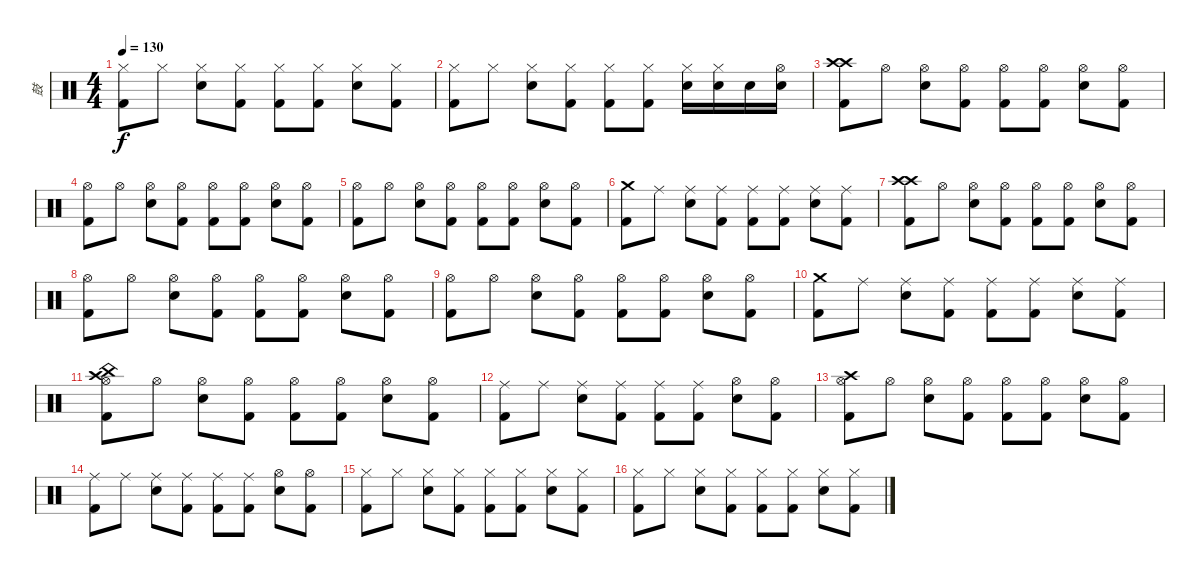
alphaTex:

\track ("鼓" "鼓") {instrument percussion}
\staff {score}
\articulation defaults
\ts (4 4)
\tempo 130
\clef neutral
\ks c
("Hi-Hat (closed)" "Kick (hit) 2").8{dy f} "Hi-Hat (closed)".8 ("Hi-Hat (closed)" "Electric Snare (hit)").8 ("Hi-Hat (closed)" "Kick (hit) 2").8 ("Hi-Hat (closed)" "Kick (hit) 2").8 ("Hi-Hat (closed)" "Kick (hit) 2").8 ("Hi-Hat (closed)" "Electric Snare (hit)").8 ("Hi-Hat (closed)" "Kick (hit) 2").8 |
("Hi-Hat (closed)" "Kick (hit) 2").8 "Hi-Hat (closed)".8 ("Hi-Hat (closed)" "Electric Snare (hit)").8 ("Hi-Hat (closed)" "Kick (hit) 2").8 ("Hi-Hat (closed)" "Kick (hit) 2").8 ("Hi-Hat (closed)" "Kick (hit) 2").8 ("Hi-Hat (closed)" "Electric Snare (hit)").16 ("Hi-Hat (closed)" "Electric Snare (hit)").16 "Electric Snare (hit)".16 ("Hi-Hat (open)" "Electric Snare (hit)").16 |
("Crash high (hit)" "Crash high (hit)" "Kick (hit) 2").8 "Hi-Hat (open)".8 ("Hi-Hat (open)" "Electric Snare (hit)").8 ("Hi-Hat (open)" "Kick (hit) 2").8 ("Hi-Hat (open)" "Kick (hit) 2").8 ("Hi-Hat (open)" "Kick (hit) 2").8 ("Hi-Hat (open)" "Electric Snare (hit)").8 ("Hi-Hat (open)" "Kick (hit) 2").8 |
("Hi-Hat (open)" "Kick (hit) 2").8 "Hi-Hat (open)".8 ("Hi-Hat (open)" "Electric Snare (hit)").8 ("Hi-Hat (open)" "Kick (hit) 2").8 ("Hi-Hat (open)" "Kick (hit) 2").8 ("Hi-Hat (open)" "Kick (hit) 2").8 ("Hi-Hat (open)" "Electric Snare (hit)").8 ("Hi-Hat (open)" "Kick (hit) 2").8 |
("Hi-Hat (open)" "Kick (hit) 2").8 "Hi-Hat (open)".8 ("Hi-Hat (open)" "Electric Snare (hit)").8 ("Hi-Hat (open)" "Kick (hit) 2").8 ("Hi-Hat (open)" "Kick (hit) 2").8 ("Hi-Hat (open)" "Kick (hit) 2").8 ("Hi-Hat (open)" "Electric Snare (hit)").8 ("Hi-Hat (open)" "Kick (hit) 2").8 |
("Crash medium (hit)" "Kick (hit) 2").8 "Ride (middle)".8 ("Ride (middle)" "Electric Snare (hit)").8 ("Ride (middle)" "Kick (hit) 2").8 ("Ride (middle)" "Kick (hit) 2").8 ("Ride (middle)" "Kick (hit) 2").8 ("Ride (middle)" "Electric Snare (hit)").8 ("Ride (middle)" "Kick (hit) 2").8 |
("Crash high (hit)" "Crash high (hit)" "Kick (hit) 2").8 "Hi-Hat (open)".8 ("Hi-Hat (open)" "Electric Snare (hit)").8 ("Hi-Hat (open)" "Kick (hit) 2").8 ("Hi-Hat (open)" "Kick (hit) 2").8 ("Hi-Hat (open)" "Kick (hit) 2").8 ("Hi-Hat (open)" "Electric Snare (hit)").8 ("Hi-Hat (open)" "Kick (hit) 2").8 |
("Hi-Hat (open)" "Kick (hit) 2").8 "Hi-Hat (open)".8 ("Hi-Hat (open)" "Electric Snare (hit)").8 ("Hi-Hat (open)" "Kick (hit) 2").8 ("Hi-Hat (open)" "Kick (hit) 2").8 ("Hi-Hat (open)" "Kick (hit) 2").8 ("Hi-Hat (open)" "Electric Snare (hit)").8 ("Hi-Hat (open)" "Kick (hit) 2").8 |
("Hi-Hat (open)" "Kick (hit) 2").8 "Hi-Hat (open)".8 ("Hi-Hat (open)" "Electric Snare (hit)").8 ("Hi-Hat (open)" "Kick (hit) 2").8 ("Hi-Hat (open)" "Kick (hit) 2").8 ("Hi-Hat (open)" "Kick (hit) 2").8 ("Hi-Hat (open)" "Electric Snare (hit)").8 ("Hi-Hat (open)" "Kick (hit) 2").8 |
("Crash medium (hit)" "Kick (hit) 2").8 "Ride (middle)".8 ("Ride (middle)" "Electric Snare (hit)").8 ("Ride (middle)" "Kick (hit) 2").8 ("Ride (middle)" "Kick (hit) 2").8 ("Ride (middle)" "Kick (hit) 2").8 ("Ride (middle)" "Electric Snare (hit)").8 ("Ride (middle)" "Kick (hit) 2").8 |
("China (hit)" "Hi-Hat (open)" "Crash high (hit)" "Kick (hit) 2").8 "Hi-Hat (open)".8 ("Hi-Hat (open)" "Electric Snare (hit)").8 ("Hi-Hat (open)" "Kick (hit) 2").8 ("Hi-Hat (open)" "Kick (hit) 2").8 ("Hi-Hat (open)" "Kick (hit) 2").8 ("Hi-Hat (open)" "Electric Snare (hit)").8 ("Hi-Hat (open)" "Kick (hit) 2").8 |
("Ride (middle)" "Kick (hit) 2").8 "Ride (middle)".8 ("Ride (middle)" "Electric Snare (hit)").8 ("Ride (middle)" "Kick (hit) 2").8 ("Ride (middle)" "Kick (hit) 2").8 ("Ride (middle)" "Kick (hit) 2").8 ("Hi-Hat (open)" "Electric Snare (hit)").8 ("Hi-Hat (open)" "Kick (hit) 2").8 |
("Hi-Hat (open)" "Crash high (hit)" "Kick (hit) 2").8 "Hi-Hat (open)".8 ("Hi-Hat (open)" "Electric Snare (hit)").8 ("Hi-Hat (open)" "Kick (hit) 2").8 ("Hi-Hat (open)" "Kick (hit) 2").8 ("Hi-Hat (open)" "Kick (hit) 2").8 ("Hi-Hat (open)" "Electric Snare (hit)").8 ("Hi-Hat (open)" "Kick (hit) 2").8 |
("Ride (middle)" "Kick (hit) 2").8 "Ride (middle)".8 ("Ride (middle)" "Electric Snare (hit)").8 ("Ride (middle)" "Kick (hit) 2").8 ("Ride (middle)" "Kick (hit) 2").8 ("Ride (middle)" "Kick (hit) 2").8 ("Hi-Hat (open)" "Electric Snare (hit)").8 ("Hi-Hat (open)" "Kick (hit) 2").8 |
("Hi-Hat (closed)" "Kick (hit) 2").8 "Hi-Hat (closed)".8 ("Hi-Hat (closed)" "Electric Snare (hit)").8 ("Hi-Hat (closed)" "Kick (hit) 2").8 ("Hi-Hat (closed)" "Kick (hit) 2").8 ("Hi-Hat (closed)" "Kick (hit) 2").8 ("Hi-Hat (closed)" "Electric Snare (hit)").8 ("Hi-Hat (closed)" "Kick (hit) 2").8 |
("Hi-Hat (closed)" "Kick (hit) 2").8 "Hi-Hat (closed)".8 ("Hi-Hat (closed)" "Electric Snare (hit)").8 ("Hi-Hat (closed)" "Kick (hit) 2").8 ("Hi-Hat (closed)" "Kick (hit) 2").8 ("Hi-Hat (closed)" "Kick (hit) 2").8 ("Hi-Hat (closed)" "Electric Snare (hit)").8 ("Hi-Hat (closed)" "Kick (hit) 2").8
